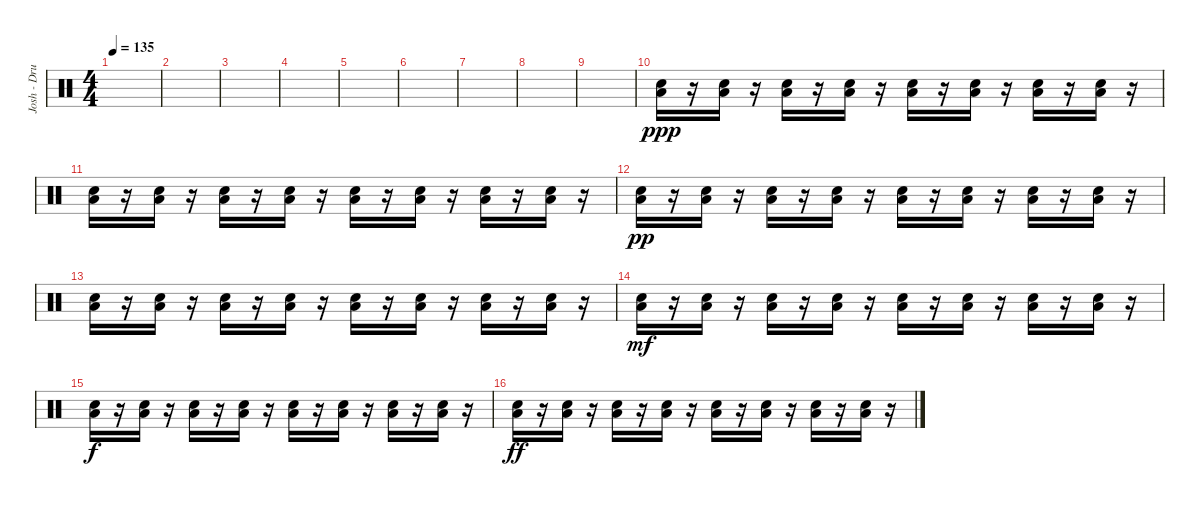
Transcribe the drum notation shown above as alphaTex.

\track ("Josh - Drums" "Josh - Dru") {instrument percussion}
\staff {score}
\articulation defaults
\ts (4 4)
\tempo 135
\clef neutral
\ks c
|
|
|
|
|
|
|
|
|
("Low Floor Tom (hit)" "Electric Snare (hit)").16{dy ppp} r.16 ("Low Floor Tom (hit)" "Electric Snare (hit)").16 r.16 ("Low Floor Tom (hit)" "Electric Snare (hit)").16 r.16 ("Low Floor Tom (hit)" "Electric Snare (hit)").16 r.16 ("Low Floor Tom (hit)" "Electric Snare (hit)").16 r.16 ("Low Floor Tom (hit)" "Electric Snare (hit)").16 r.16 ("Low Floor Tom (hit)" "Electric Snare (hit)").16 r.16 ("Low Floor Tom (hit)" "Electric Snare (hit)").16 r.16 |
("Low Floor Tom (hit)" "Electric Snare (hit)").16 r.16 ("Low Floor Tom (hit)" "Electric Snare (hit)").16 r.16 ("Low Floor Tom (hit)" "Electric Snare (hit)").16 r.16 ("Low Floor Tom (hit)" "Electric Snare (hit)").16 r.16 ("Low Floor Tom (hit)" "Electric Snare (hit)").16 r.16 ("Low Floor Tom (hit)" "Electric Snare (hit)").16 r.16 ("Low Floor Tom (hit)" "Electric Snare (hit)").16 r.16 ("Low Floor Tom (hit)" "Electric Snare (hit)").16 r.16 |
("Low Floor Tom (hit)" "Electric Snare (hit)").16{dy pp} r.16 ("Low Floor Tom (hit)" "Electric Snare (hit)").16 r.16 ("Low Floor Tom (hit)" "Electric Snare (hit)").16 r.16 ("Low Floor Tom (hit)" "Electric Snare (hit)").16 r.16 ("Low Floor Tom (hit)" "Electric Snare (hit)").16 r.16 ("Low Floor Tom (hit)" "Electric Snare (hit)").16 r.16 ("Low Floor Tom (hit)" "Electric Snare (hit)").16 r.16 ("Low Floor Tom (hit)" "Electric Snare (hit)").16 r.16 |
("Low Floor Tom (hit)" "Electric Snare (hit)").16 r.16 ("Low Floor Tom (hit)" "Electric Snare (hit)").16 r.16 ("Low Floor Tom (hit)" "Electric Snare (hit)").16 r.16 ("Low Floor Tom (hit)" "Electric Snare (hit)").16 r.16 ("Low Floor Tom (hit)" "Electric Snare (hit)").16 r.16 ("Low Floor Tom (hit)" "Electric Snare (hit)").16 r.16 ("Low Floor Tom (hit)" "Electric Snare (hit)").16 r.16 ("Low Floor Tom (hit)" "Electric Snare (hit)").16 r.16 |
("Low Floor Tom (hit)" "Electric Snare (hit)").16{dy mf} r.16 ("Low Floor Tom (hit)" "Electric Snare (hit)").16 r.16 ("Low Floor Tom (hit)" "Electric Snare (hit)").16 r.16 ("Low Floor Tom (hit)" "Electric Snare (hit)").16 r.16 ("Low Floor Tom (hit)" "Electric Snare (hit)").16 r.16 ("Low Floor Tom (hit)" "Electric Snare (hit)").16 r.16 ("Low Floor Tom (hit)" "Electric Snare (hit)").16 r.16 ("Low Floor Tom (hit)" "Electric Snare (hit)").16 r.16 |
("Low Floor Tom (hit)" "Electric Snare (hit)").16{dy f} r.16 ("Low Floor Tom (hit)" "Electric Snare (hit)").16 r.16 ("Low Floor Tom (hit)" "Electric Snare (hit)").16 r.16 ("Low Floor Tom (hit)" "Electric Snare (hit)").16 r.16 ("Low Floor Tom (hit)" "Electric Snare (hit)").16 r.16 ("Low Floor Tom (hit)" "Electric Snare (hit)").16 r.16 ("Low Floor Tom (hit)" "Electric Snare (hit)").16 r.16 ("Low Floor Tom (hit)" "Electric Snare (hit)").16 r.16 |
("Low Floor Tom (hit)" "Electric Snare (hit)").16{dy ff} r.16 ("Low Floor Tom (hit)" "Electric Snare (hit)").16 r.16 ("Low Floor Tom (hit)" "Electric Snare (hit)").16 r.16 ("Low Floor Tom (hit)" "Electric Snare (hit)").16 r.16 ("Low Floor Tom (hit)" "Electric Snare (hit)").16 r.16 ("Low Floor Tom (hit)" "Electric Snare (hit)").16 r.16 ("Low Floor Tom (hit)" "Electric Snare (hit)").16 r.16 ("Low Floor Tom (hit)" "Electric Snare (hit)").16 r.16
